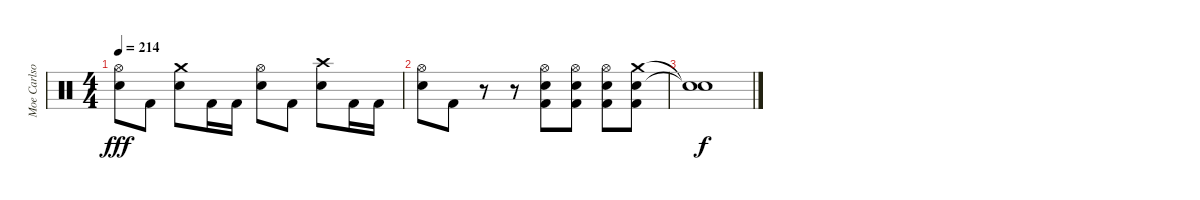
\track ("Moe Carlson" "Moe Carlso") {instrument percussion}
\staff {score}
\articulation defaults
\ts (4 4)
\tempo 214
\clef neutral
\ks c
("Hi-Hat (open)" "Electric Snare (hit)").8{dy fff} "Kick (hit) 2".8 ("Crash medium (hit)" "Electric Snare (hit)").8 "Kick (hit) 2".16 "Kick (hit) 2".16 ("Hi-Hat (open)" "Electric Snare (hit)").8 "Kick (hit) 2".8 ("Crash high (hit)" "Electric Snare (hit)").8 "Kick (hit) 2".16 "Kick (hit) 2".16 |
("Hi-Hat (open)" "Electric Snare (hit)").8 "Kick (hit) 2".8 r.8 r.8 ("Hi-Hat (open)" "Electric Snare (hit)" "Kick (hit) 2").8 ("Hi-Hat (open)" "Electric Snare (hit)" "Kick (hit) 2").8 ("Hi-Hat (open)" "Electric Snare (hit)" "Kick (hit) 2").8 ("Crash medium (hit)" "Electric Snare (hit)" "Kick (hit) 2").8 |
("Snare (hit)"{t} "Snare (hit)"{t}).1{dy f}
